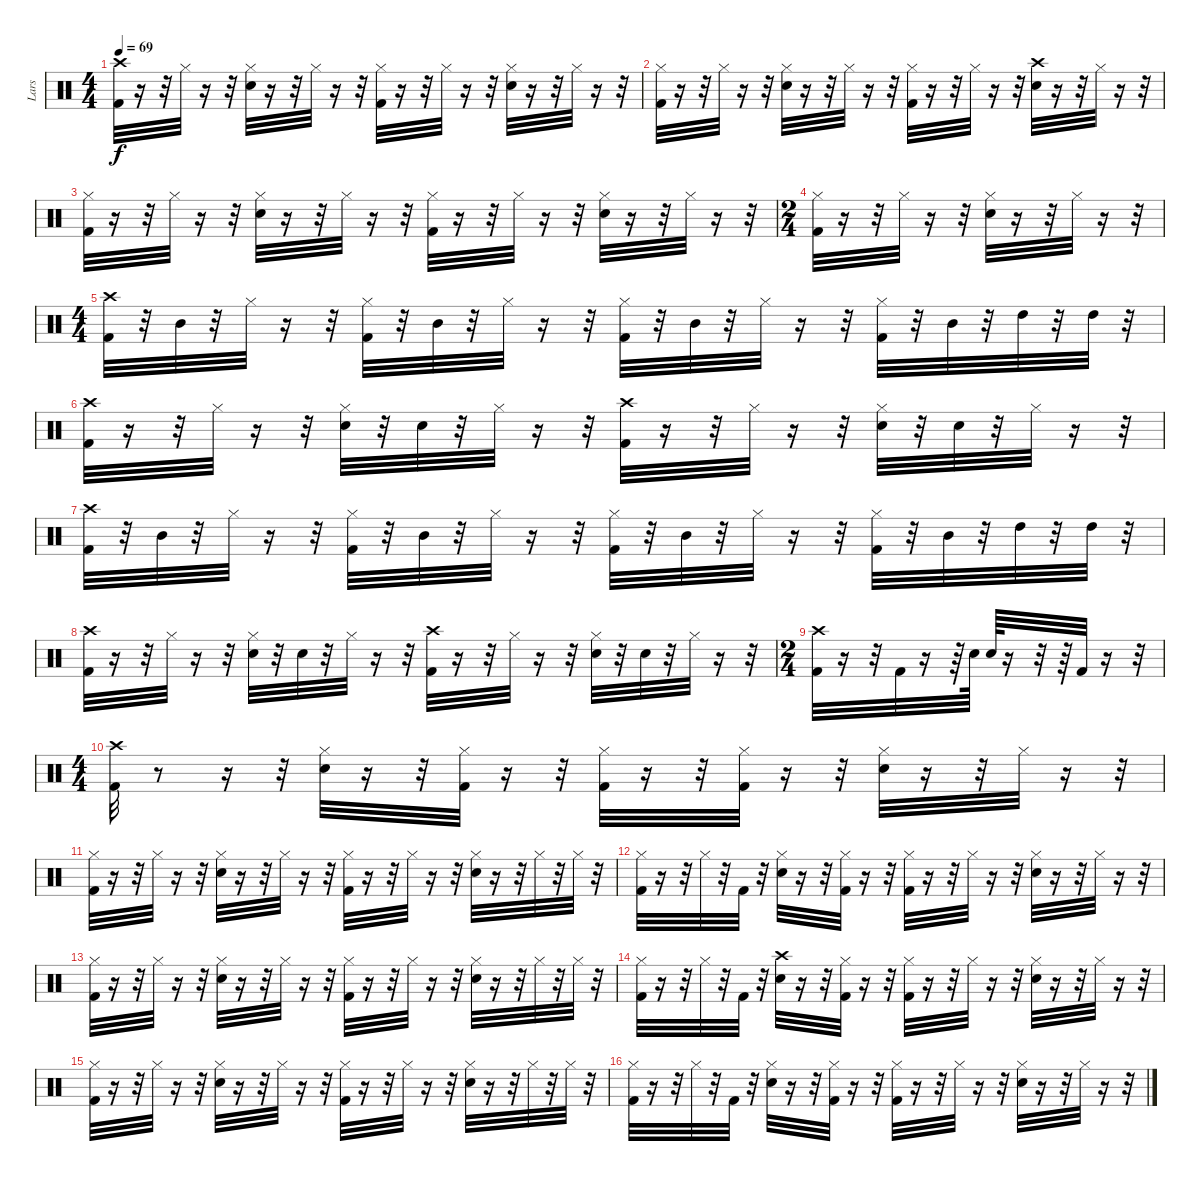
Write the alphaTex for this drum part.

\track ("Lars" "Lars") {instrument percussion}
\staff {score}
\articulation defaults
\ts (4 4)
\tempo 69
\clef neutral
\ks c
("Kick (hit) 2" "Crash high (hit)").32{dy f} r.16 r.32 "Hi-Hat (closed)".32 r.16 r.32 ("Snare (hit) 2" "Hi-Hat (closed)").32 r.16 r.32 "Hi-Hat (closed)".32 r.16 r.32 ("Hi-Hat (closed)" "Kick (hit) 2").32 r.16 r.32 "Hi-Hat (closed)".32 r.16 r.32 ("Snare (hit) 2" "Hi-Hat (closed)").32 r.16 r.32 "Hi-Hat (closed)".32 r.16 r.32 |
("Kick (hit) 2" "Hi-Hat (closed)").32 r.16 r.32 "Hi-Hat (closed)".32 r.16 r.32 ("Snare (hit) 2" "Hi-Hat (closed)").32 r.16 r.32 "Hi-Hat (closed)".32 r.16 r.32 ("Hi-Hat (closed)" "Kick (hit) 2").32 r.16 r.32 "Hi-Hat (closed)".32 r.16 r.32 ("Crash high (hit)" "Snare (hit) 2").32 r.16 r.32 "Hi-Hat (closed)".32 r.16 r.32 |
("Kick (hit) 2" "Hi-Hat (closed)").32 r.16 r.32 "Hi-Hat (closed)".32 r.16 r.32 ("Snare (hit) 2" "Hi-Hat (closed)").32 r.16 r.32 "Hi-Hat (closed)".32 r.16 r.32 ("Kick (hit) 2" "Hi-Hat (closed)").32 r.16 r.32 "Hi-Hat (closed)".32 r.16 r.32 ("Snare (hit) 2" "Hi-Hat (closed)").32 r.16 r.32 "Hi-Hat (closed)".32 r.16 r.32 |
\ts (2 4)
("Kick (hit) 2" "Hi-Hat (closed)").32 r.16 r.32 "Hi-Hat (closed)".32 r.16 r.32 ("Snare (hit) 2" "Hi-Hat (closed)").32 r.16 r.32 "Hi-Hat (closed)".32 r.16 r.32 |
\ts (4 4)
("Kick (hit) 2" "Crash high (hit)").32 r.32 "Mid Tom (hit)".32 r.32 "Hi-Hat (closed)".32 r.16 r.32 ("Hi-Hat (closed)" "Kick (hit) 2").32 r.32 "Mid Tom (hit)".32 r.32 "Hi-Hat (closed)".32 r.16 r.32 ("Hi-Hat (closed)" "Kick (hit) 2").32 r.32 "Mid Tom (hit)".32 r.32 "Hi-Hat (closed)".32 r.16 r.32 ("Hi-Hat (closed)" "Kick (hit) 2").32 r.32 "Mid Tom (hit)".32 r.32 "High Tom (hit)".32 r.32 "High Tom (hit)".32 r.32 |
("Kick (hit) 2" "Crash high (hit)").32 r.16 r.32 "Hi-Hat (closed)".32 r.16 r.32 ("Snare (hit) 2" "Hi-Hat (closed)").32 r.32 "Snare (hit) 2".32 r.32 "Hi-Hat (closed)".32 r.16 r.32 ("Crash high (hit)" "Kick (hit) 2").32 r.16 r.32 "Hi-Hat (closed)".32 r.16 r.32 ("Snare (hit) 2" "Hi-Hat (closed)").32 r.32 "Snare (hit) 2".32 r.32 "Hi-Hat (closed)".32 r.16 r.32 |
("Kick (hit) 2" "Crash high (hit)").32 r.32 "Mid Tom (hit)".32 r.32 "Hi-Hat (closed)".32 r.16 r.32 ("Hi-Hat (closed)" "Kick (hit) 2").32 r.32 "Mid Tom (hit)".32 r.32 "Hi-Hat (closed)".32 r.16 r.32 ("Hi-Hat (closed)" "Kick (hit) 2").32 r.32 "Mid Tom (hit)".32 r.32 "Hi-Hat (closed)".32 r.16 r.32 ("Hi-Hat (closed)" "Kick (hit) 2").32 r.32 "Mid Tom (hit)".32 r.32 "High Tom (hit)".32 r.32 "High Tom (hit)".32 r.32 |
("Kick (hit) 2" "Crash high (hit)").32 r.16 r.32 "Hi-Hat (closed)".32 r.16 r.32 ("Snare (hit) 2" "Hi-Hat (closed)").32 r.32 "Snare (hit) 2".32 r.32 "Hi-Hat (closed)".32 r.16 r.32 ("Crash high (hit)" "Kick (hit) 2").32 r.16 r.32 "Hi-Hat (closed)".32 r.16 r.32 ("Snare (hit) 2" "Hi-Hat (closed)").32 r.32 "Snare (hit) 2".32 r.32 "Hi-Hat (closed)".32 r.16 r.32 |
\ts (2 4)
("Kick (hit) 2" "Crash high (hit)").32 r.16 r.32 "Kick (hit) 2".32 r.16 r.64 "Snare (hit) 2".64 "Snare (hit) 2".64 r.16 r.32 r.64 "Kick (hit) 2".32 r.16 r.32 |
\ts (4 4)
("Kick (hit) 2" "Crash high (hit)").32 r.8 r.16 r.32 ("Hi-Hat (closed)" "Snare (hit) 2").32 r.16 r.32 ("Hi-Hat (closed)" "Kick (hit) 2").32 r.16 r.32 ("Hi-Hat (closed)" "Kick (hit) 2").32 r.16 r.32 ("Hi-Hat (closed)" "Kick (hit) 2").32 r.16 r.32 ("Hi-Hat (closed)" "Snare (hit) 2").32 r.16 r.32 "Hi-Hat (closed)".32 r.16 r.32 |
("Hi-Hat (closed)" "Kick (hit) 2").32 r.16 r.32 "Hi-Hat (closed)".32 r.16 r.32 ("Snare (hit) 2" "Hi-Hat (closed)").32 r.16 r.32 "Hi-Hat (closed)".32 r.16 r.32 ("Hi-Hat (closed)" "Kick (hit) 2").32 r.16 r.32 "Hi-Hat (closed)".32 r.16 r.32 ("Hi-Hat (closed)" "Snare (hit) 2").32 r.16 r.32 "Hi-Hat (closed)".32 r.32 "Hi-Hat (closed)".32 r.32 |
("Hi-Hat (closed)" "Kick (hit) 2").32 r.16 r.32 "Hi-Hat (closed)".32 r.32 "Kick (hit) 2".32 r.32 ("Snare (hit) 2" "Hi-Hat (closed)").32 r.16 r.32 ("Kick (hit) 2" "Hi-Hat (closed)").32 r.16 r.32 ("Hi-Hat (closed)" "Kick (hit) 2").32 r.16 r.32 "Hi-Hat (closed)".32 r.16 r.32 ("Snare (hit) 2" "Hi-Hat (closed)").32 r.16 r.32 "Hi-Hat (closed)".32 r.16 r.32 |
("Hi-Hat (closed)" "Kick (hit) 2").32 r.16 r.32 "Hi-Hat (closed)".32 r.16 r.32 ("Snare (hit) 2" "Hi-Hat (closed)").32 r.16 r.32 "Hi-Hat (closed)".32 r.16 r.32 ("Kick (hit) 2" "Hi-Hat (closed)").32 r.16 r.32 "Hi-Hat (closed)".32 r.16 r.32 ("Hi-Hat (closed)" "Snare (hit) 2").32 r.16 r.32 "Hi-Hat (closed)".32 r.32 "Hi-Hat (closed)".32 r.32 |
("Hi-Hat (closed)" "Kick (hit) 2").32 r.16 r.32 "Hi-Hat (closed)".32 r.32 "Kick (hit) 2".32 r.32 ("Crash high (hit)" "Snare (hit) 2").32 r.16 r.32 ("Hi-Hat (closed)" "Kick (hit) 2").32 r.16 r.32 ("Hi-Hat (closed)" "Kick (hit) 2").32 r.16 r.32 "Hi-Hat (closed)".32 r.16 r.32 ("Snare (hit) 2" "Hi-Hat (closed)").32 r.16 r.32 "Hi-Hat (closed)".32 r.16 r.32 |
("Hi-Hat (closed)" "Kick (hit) 2").32 r.16 r.32 "Hi-Hat (closed)".32 r.16 r.32 ("Snare (hit) 2" "Hi-Hat (closed)").32 r.16 r.32 "Hi-Hat (closed)".32 r.16 r.32 ("Kick (hit) 2" "Hi-Hat (closed)").32 r.16 r.32 "Hi-Hat (closed)".32 r.16 r.32 ("Hi-Hat (closed)" "Snare (hit) 2").32 r.16 r.32 "Hi-Hat (closed)".32 r.32 "Hi-Hat (closed)".32 r.32 |
("Hi-Hat (closed)" "Kick (hit) 2").32 r.16 r.32 "Hi-Hat (closed)".32 r.32 "Kick (hit) 2".32 r.32 ("Snare (hit) 2" "Hi-Hat (closed)").32 r.16 r.32 ("Kick (hit) 2" "Hi-Hat (closed)").32 r.16 r.32 ("Hi-Hat (closed)" "Kick (hit) 2").32 r.16 r.32 "Hi-Hat (closed)".32 r.16 r.32 ("Snare (hit) 2" "Hi-Hat (closed)").32 r.16 r.32 "Hi-Hat (closed)".32 r.16 r.32
